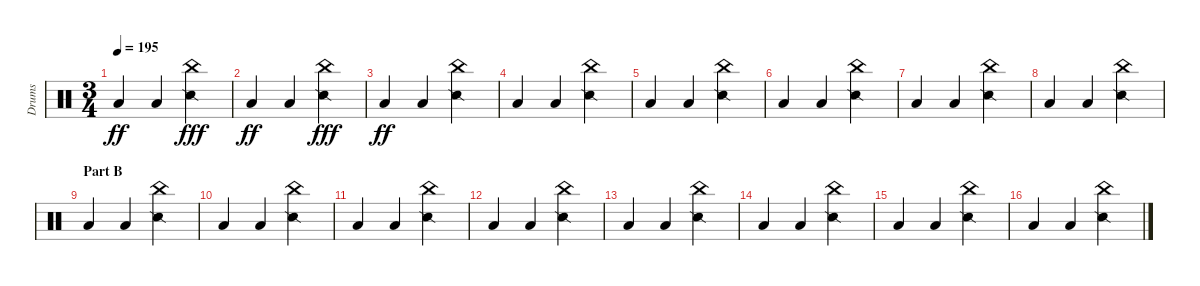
\track ("Drums" "Drums") {instrument percussion}
\staff {score}
\articulation defaults
\ts (3 4)
\tempo 195
\clef neutral
\ks c "Low Floor Tom (hit)".4{dy ff} "Low Floor Tom (hit)".4
("Snare (side stick) 2" "China (hit)").4{dy fff} |
"Low Floor Tom (hit)".4{dy ff} "Low Floor Tom (hit)".4 ("Snare (side stick) 2" "China (hit)").4{dy fff} |
"Low Floor Tom (hit)".4{dy ff} "Low Floor Tom (hit)".4 ("China (hit)" "Snare (side stick) 2").4 |
"Low Floor Tom (hit)".4 "Low Floor Tom (hit)".4 ("China (hit)" "Snare (side stick) 2").4 |
"Low Floor Tom (hit)".4 "Low Floor Tom (hit)".4 ("China (hit)" "Snare (side stick) 2").4 |
"Low Floor Tom (hit)".4 "Low Floor Tom (hit)".4 ("China (hit)" "Snare (side stick) 2").4 |
"Low Floor Tom (hit)".4 "Low Floor Tom (hit)".4 ("China (hit)" "Snare (side stick) 2").4 |
"Low Floor Tom (hit)".4 "Low Floor Tom (hit)".4 ("China (hit)" "Snare (side stick) 2").4 |
\section ("" "Part B")
"Low Floor Tom (hit)".4 "Low Floor Tom (hit)".4 ("China (hit)" "Snare (side stick) 2").4 |
"Low Floor Tom (hit)".4 "Low Floor Tom (hit)".4 ("China (hit)" "Snare (side stick) 2").4 |
"Low Floor Tom (hit)".4 "Low Floor Tom (hit)".4 ("China (hit)" "Snare (side stick) 2").4 |
"Low Floor Tom (hit)".4 "Low Floor Tom (hit)".4 ("China (hit)" "Snare (side stick) 2").4 |
"Low Floor Tom (hit)".4 "Low Floor Tom (hit)".4 ("China (hit)" "Snare (side stick) 2").4 |
"Low Floor Tom (hit)".4 "Low Floor Tom (hit)".4 ("China (hit)" "Snare (side stick) 2").4 |
"Low Floor Tom (hit)".4 "Low Floor Tom (hit)".4 ("China (hit)" "Snare (side stick) 2").4 |
"Low Floor Tom (hit)".4 "Low Floor Tom (hit)".4 ("China (hit)" "Snare (side stick) 2").4
